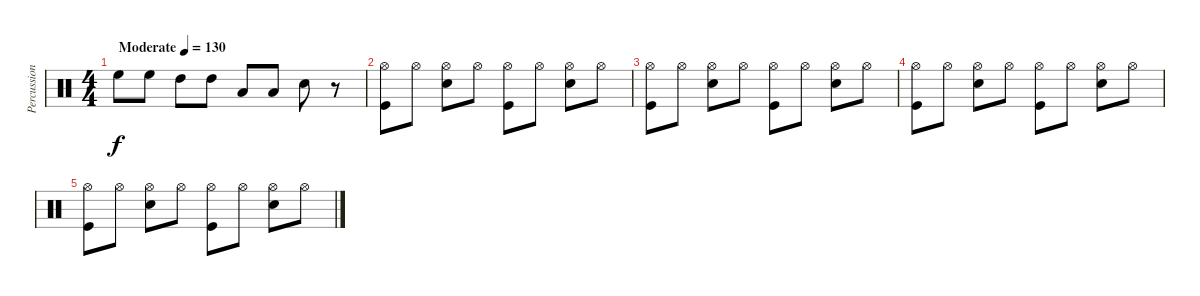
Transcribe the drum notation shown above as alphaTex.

\track ("Percussion" "Percussion") {instrument percussion}
\staff {score}
\articulation defaults
\ts (4 4)
\tempo (130 "Moderate")
\clef neutral
\ks c "High Floor Tom (hit)".8{dy f} "High Floor Tom (hit)".8 "High Tom (hit)".8 "High Tom (hit)".8 "Low Tom (hit)".8 "Low Tom (hit)".8 "Snare (hit) 2".8
r.8 |
("Hi-Hat (open)" "Kick (hit)").8 "Hi-Hat (open)".8 ("Hi-Hat (open)" "Snare (hit) 2").8 "Hi-Hat (open)".8 ("Hi-Hat (open)" "Kick (hit)").8 "Hi-Hat (open)".8 ("Hi-Hat (open)" "Snare (hit) 2").8 "Hi-Hat (open)".8 |
("Hi-Hat (open)" "Kick (hit)").8 "Hi-Hat (open)".8 ("Hi-Hat (open)" "Snare (hit) 2").8 "Hi-Hat (open)".8 ("Hi-Hat (open)" "Kick (hit)").8 "Hi-Hat (open)".8 ("Hi-Hat (open)" "Snare (hit) 2").8 "Hi-Hat (open)".8 |
("Hi-Hat (open)" "Kick (hit)").8 "Hi-Hat (open)".8 ("Hi-Hat (open)" "Snare (hit) 2").8 "Hi-Hat (open)".8 ("Hi-Hat (open)" "Kick (hit)").8 "Hi-Hat (open)".8 ("Hi-Hat (open)" "Snare (hit) 2").8 "Hi-Hat (open)".8 |
("Hi-Hat (open)" "Kick (hit)").8 "Hi-Hat (open)".8 ("Hi-Hat (open)" "Snare (hit) 2").8 "Hi-Hat (open)".8 ("Hi-Hat (open)" "Kick (hit)").8 "Hi-Hat (open)".8 ("Hi-Hat (open)" "Snare (hit) 2").8 "Hi-Hat (open)".8
